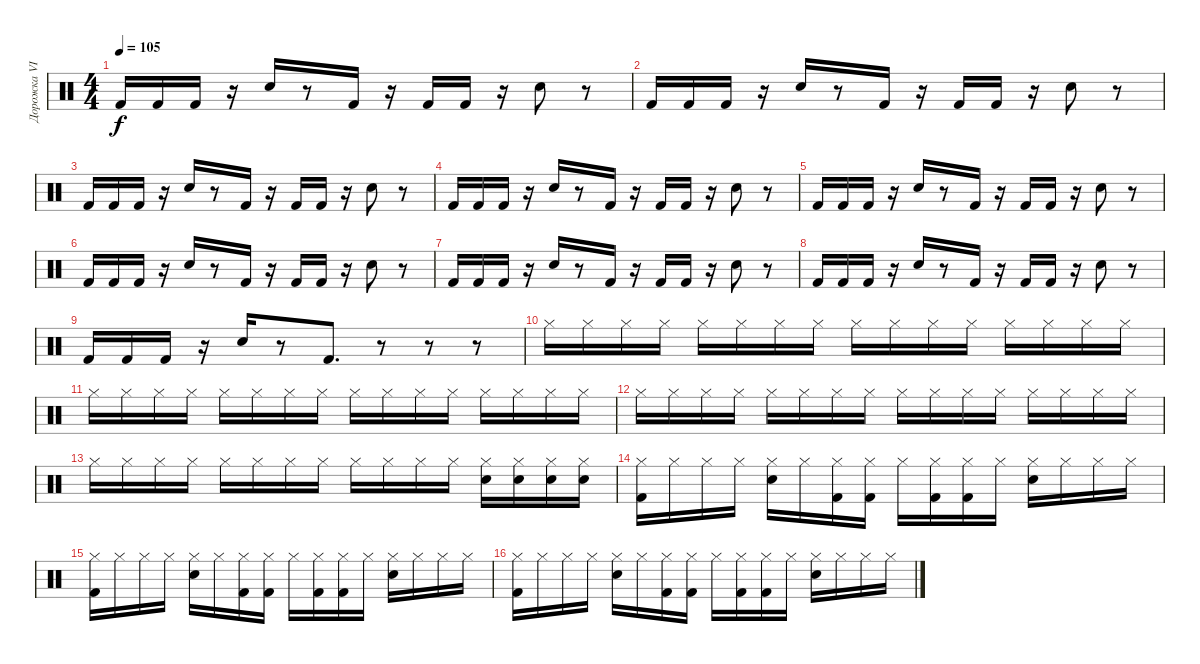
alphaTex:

\track ("Дорожка VI" "Дорожка VI") {instrument percussion}
\staff {score}
\articulation defaults
\ts (4 4)
\tempo 105
\clef neutral
\ks c "Kick (hit) 2".16{dy f} "Kick (hit) 2".16 "Kick (hit) 2".16
r.16 "Electric Snare (hit)".16 r.8 "Kick (hit) 2".16 r.16 "Kick (hit) 2".16 "Kick (hit) 2".16 r.16 "Electric Snare (hit)".8 r.8 |
"Kick (hit) 2".16 "Kick (hit) 2".16 "Kick (hit) 2".16 r.16 "Electric Snare (hit)".16 r.8 "Kick (hit) 2".16 r.16 "Kick (hit) 2".16 "Kick (hit) 2".16 r.16 "Electric Snare (hit)".8 r.8 |
"Kick (hit) 2".16 "Kick (hit) 2".16 "Kick (hit) 2".16 r.16 "Electric Snare (hit)".16 r.8 "Kick (hit) 2".16 r.16 "Kick (hit) 2".16 "Kick (hit) 2".16 r.16 "Electric Snare (hit)".8 r.8 |
"Kick (hit) 2".16 "Kick (hit) 2".16 "Kick (hit) 2".16 r.16 "Electric Snare (hit)".16 r.8 "Kick (hit) 2".16 r.16 "Kick (hit) 2".16 "Kick (hit) 2".16 r.16 "Electric Snare (hit)".8 r.8 |
"Kick (hit) 2".16 "Kick (hit) 2".16 "Kick (hit) 2".16 r.16 "Electric Snare (hit)".16 r.8 "Kick (hit) 2".16 r.16 "Kick (hit) 2".16 "Kick (hit) 2".16 r.16 "Electric Snare (hit)".8 r.8 |
"Kick (hit) 2".16 "Kick (hit) 2".16 "Kick (hit) 2".16 r.16 "Electric Snare (hit)".16 r.8 "Kick (hit) 2".16 r.16 "Kick (hit) 2".16 "Kick (hit) 2".16 r.16 "Electric Snare (hit)".8 r.8 |
"Kick (hit) 2".16 "Kick (hit) 2".16 "Kick (hit) 2".16 r.16 "Electric Snare (hit)".16 r.8 "Kick (hit) 2".16 r.16 "Kick (hit) 2".16 "Kick (hit) 2".16 r.16 "Electric Snare (hit)".8 r.8 |
"Kick (hit) 2".16 "Kick (hit) 2".16 "Kick (hit) 2".16 r.16 "Electric Snare (hit)".16 r.8 "Kick (hit) 2".16 r.16 "Kick (hit) 2".16 "Kick (hit) 2".16 r.16 "Electric Snare (hit)".8 r.8 |
"Kick (hit) 2".16 "Kick (hit) 2".16 "Kick (hit) 2".16 r.16 "Electric Snare (hit)".16 r.8 "Kick (hit) 2".8{d} r.8 r.8 r.8 |
"Hi-Hat (closed)".16 "Hi-Hat (closed)".16 "Hi-Hat (closed)".16 "Hi-Hat (closed)".16 "Hi-Hat (closed)".16 "Hi-Hat (closed)".16 "Hi-Hat (closed)".16 "Hi-Hat (closed)".16 "Hi-Hat (closed)".16 "Hi-Hat (closed)".16 "Hi-Hat (closed)".16 "Hi-Hat (closed)".16 "Hi-Hat (closed)".16 "Hi-Hat (closed)".16 "Hi-Hat (closed)".16 "Hi-Hat (closed)".16 |
"Hi-Hat (closed)".16 "Hi-Hat (closed)".16 "Hi-Hat (closed)".16 "Hi-Hat (closed)".16 "Hi-Hat (closed)".16 "Hi-Hat (closed)".16 "Hi-Hat (closed)".16 "Hi-Hat (closed)".16 "Hi-Hat (closed)".16 "Hi-Hat (closed)".16 "Hi-Hat (closed)".16 "Hi-Hat (closed)".16 "Hi-Hat (closed)".16 "Hi-Hat (closed)".16 "Hi-Hat (closed)".16 "Hi-Hat (closed)".16 |
"Hi-Hat (closed)".16 "Hi-Hat (closed)".16 "Hi-Hat (closed)".16 "Hi-Hat (closed)".16 "Hi-Hat (closed)".16 "Hi-Hat (closed)".16 "Hi-Hat (closed)".16 "Hi-Hat (closed)".16 "Hi-Hat (closed)".16 "Hi-Hat (closed)".16 "Hi-Hat (closed)".16 "Hi-Hat (closed)".16 "Hi-Hat (closed)".16 "Hi-Hat (closed)".16 "Hi-Hat (closed)".16 "Hi-Hat (closed)".16 |
"Hi-Hat (closed)".16 "Hi-Hat (closed)".16 "Hi-Hat (closed)".16 "Hi-Hat (closed)".16 "Hi-Hat (closed)".16 "Hi-Hat (closed)".16 "Hi-Hat (closed)".16 "Hi-Hat (closed)".16 "Hi-Hat (closed)".16 "Hi-Hat (closed)".16 "Hi-Hat (closed)".16 "Hi-Hat (closed)".16 ("Electric Snare (hit)" "Hi-Hat (closed)").16 ("Electric Snare (hit)" "Hi-Hat (closed)").16 ("Electric Snare (hit)" "Hi-Hat (closed)").16 ("Electric Snare (hit)" "Hi-Hat (closed)").16 |
("Kick (hit) 2" "Hi-Hat (closed)").16 "Hi-Hat (closed)".16 "Hi-Hat (closed)".16 "Hi-Hat (closed)".16 ("Electric Snare (hit)" "Hi-Hat (closed)").16 "Hi-Hat (closed)".16 ("Kick (hit) 2" "Hi-Hat (closed)").16 ("Kick (hit) 2" "Hi-Hat (closed)").16 "Hi-Hat (closed)".16 ("Kick (hit) 2" "Hi-Hat (closed)").16 ("Kick (hit) 2" "Hi-Hat (closed)").16 "Hi-Hat (closed)".16 ("Electric Snare (hit)" "Hi-Hat (closed)").16 "Hi-Hat (closed)".16 "Hi-Hat (closed)".16 "Hi-Hat (closed)".16 |
("Kick (hit) 2" "Hi-Hat (closed)").16 "Hi-Hat (closed)".16 "Hi-Hat (closed)".16 "Hi-Hat (closed)".16 ("Electric Snare (hit)" "Hi-Hat (closed)").16 "Hi-Hat (closed)".16 ("Kick (hit) 2" "Hi-Hat (closed)").16 ("Kick (hit) 2" "Hi-Hat (closed)").16 "Hi-Hat (closed)".16 ("Kick (hit) 2" "Hi-Hat (closed)").16 ("Kick (hit) 2" "Hi-Hat (closed)").16 "Hi-Hat (closed)".16 ("Electric Snare (hit)" "Hi-Hat (closed)").16 "Hi-Hat (closed)".16 "Hi-Hat (closed)".16 "Hi-Hat (closed)".16 |
("Kick (hit) 2" "Hi-Hat (closed)").16 "Hi-Hat (closed)".16 "Hi-Hat (closed)".16 "Hi-Hat (closed)".16 ("Electric Snare (hit)" "Hi-Hat (closed)").16 "Hi-Hat (closed)".16 ("Kick (hit) 2" "Hi-Hat (closed)").16 ("Kick (hit) 2" "Hi-Hat (closed)").16 "Hi-Hat (closed)".16 ("Kick (hit) 2" "Hi-Hat (closed)").16 ("Kick (hit) 2" "Hi-Hat (closed)").16 "Hi-Hat (closed)".16 ("Electric Snare (hit)" "Hi-Hat (closed)").16 "Hi-Hat (closed)".16 "Hi-Hat (closed)".16 "Hi-Hat (closed)".16
